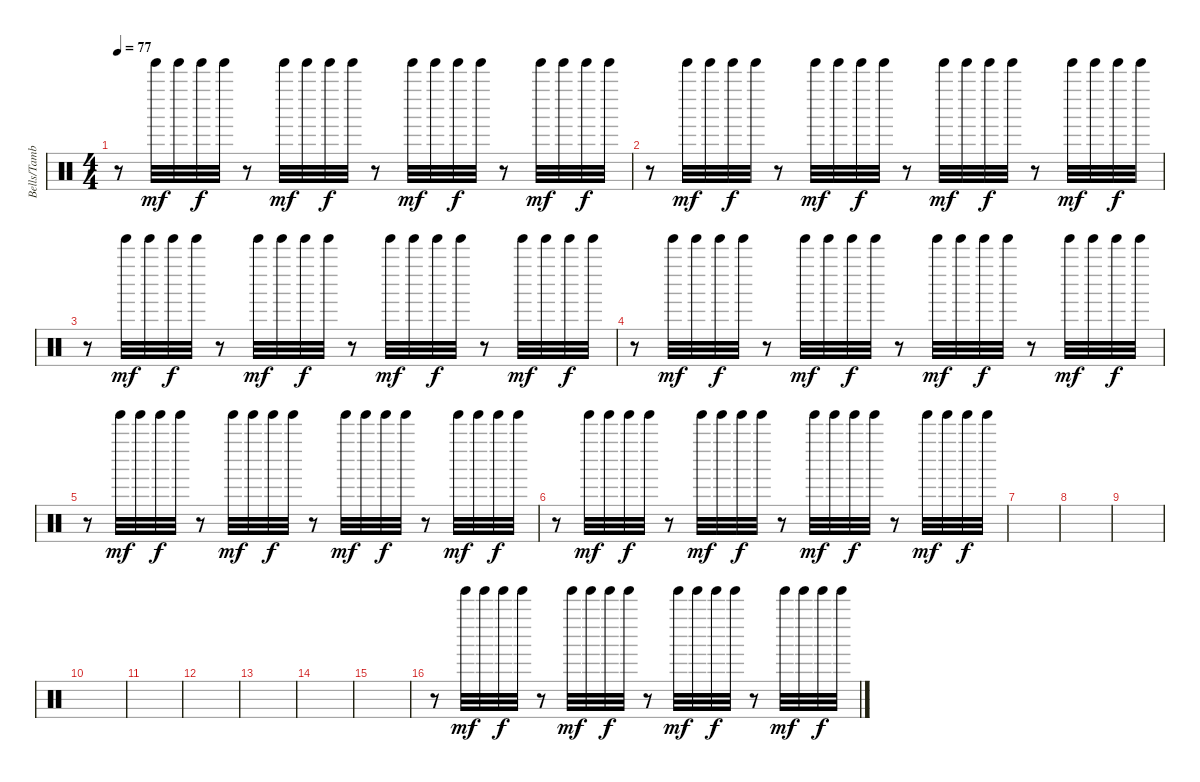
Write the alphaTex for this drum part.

\track ("Bells/Tambo" "Bells/Tamb") {instrument percussion}
\staff {score}
\articulation defaults
\ts (4 4)
\tempo 77
\clef neutral
\ks c
r.8{dy f} "Tinkle Bell (hit)".32{dy mf} "Tinkle Bell (hit)".32 "Tinkle Bell (hit)".32{dy f} "Tinkle Bell (hit)".32 r.8 "Tinkle Bell (hit)".32{dy mf} "Tinkle Bell (hit)".32 "Tinkle Bell (hit)".32{dy f} "Tinkle Bell (hit)".32 r.8 "Tinkle Bell (hit)".32{dy mf} "Tinkle Bell (hit)".32 "Tinkle Bell (hit)".32{dy f} "Tinkle Bell (hit)".32 r.8 "Tinkle Bell (hit)".32{dy mf} "Tinkle Bell (hit)".32 "Tinkle Bell (hit)".32{dy f} "Tinkle Bell (hit)".32 |
r.8 "Tinkle Bell (hit)".32{dy mf} "Tinkle Bell (hit)".32 "Tinkle Bell (hit)".32{dy f} "Tinkle Bell (hit)".32 r.8 "Tinkle Bell (hit)".32{dy mf} "Tinkle Bell (hit)".32 "Tinkle Bell (hit)".32{dy f} "Tinkle Bell (hit)".32 r.8 "Tinkle Bell (hit)".32{dy mf} "Tinkle Bell (hit)".32 "Tinkle Bell (hit)".32{dy f} "Tinkle Bell (hit)".32 r.8 "Tinkle Bell (hit)".32{dy mf} "Tinkle Bell (hit)".32 "Tinkle Bell (hit)".32{dy f} "Tinkle Bell (hit)".32 |
r.8 "Tinkle Bell (hit)".32{dy mf} "Tinkle Bell (hit)".32 "Tinkle Bell (hit)".32{dy f} "Tinkle Bell (hit)".32 r.8 "Tinkle Bell (hit)".32{dy mf} "Tinkle Bell (hit)".32 "Tinkle Bell (hit)".32{dy f} "Tinkle Bell (hit)".32 r.8 "Tinkle Bell (hit)".32{dy mf} "Tinkle Bell (hit)".32 "Tinkle Bell (hit)".32{dy f} "Tinkle Bell (hit)".32 r.8 "Tinkle Bell (hit)".32{dy mf} "Tinkle Bell (hit)".32 "Tinkle Bell (hit)".32{dy f} "Tinkle Bell (hit)".32 |
r.8 "Tinkle Bell (hit)".32{dy mf} "Tinkle Bell (hit)".32 "Tinkle Bell (hit)".32{dy f} "Tinkle Bell (hit)".32 r.8 "Tinkle Bell (hit)".32{dy mf} "Tinkle Bell (hit)".32 "Tinkle Bell (hit)".32{dy f} "Tinkle Bell (hit)".32 r.8 "Tinkle Bell (hit)".32{dy mf} "Tinkle Bell (hit)".32 "Tinkle Bell (hit)".32{dy f} "Tinkle Bell (hit)".32 r.8 "Tinkle Bell (hit)".32{dy mf} "Tinkle Bell (hit)".32 "Tinkle Bell (hit)".32{dy f} "Tinkle Bell (hit)".32 |
r.8 "Tinkle Bell (hit)".32{dy mf} "Tinkle Bell (hit)".32 "Tinkle Bell (hit)".32{dy f} "Tinkle Bell (hit)".32 r.8 "Tinkle Bell (hit)".32{dy mf} "Tinkle Bell (hit)".32 "Tinkle Bell (hit)".32{dy f} "Tinkle Bell (hit)".32 r.8 "Tinkle Bell (hit)".32{dy mf} "Tinkle Bell (hit)".32 "Tinkle Bell (hit)".32{dy f} "Tinkle Bell (hit)".32 r.8 "Tinkle Bell (hit)".32{dy mf} "Tinkle Bell (hit)".32 "Tinkle Bell (hit)".32{dy f} "Tinkle Bell (hit)".32 |
r.8 "Tinkle Bell (hit)".32{dy mf} "Tinkle Bell (hit)".32 "Tinkle Bell (hit)".32{dy f} "Tinkle Bell (hit)".32 r.8 "Tinkle Bell (hit)".32{dy mf} "Tinkle Bell (hit)".32 "Tinkle Bell (hit)".32{dy f} "Tinkle Bell (hit)".32 r.8 "Tinkle Bell (hit)".32{dy mf} "Tinkle Bell (hit)".32 "Tinkle Bell (hit)".32{dy f} "Tinkle Bell (hit)".32 r.8 "Tinkle Bell (hit)".32{dy mf} "Tinkle Bell (hit)".32 "Tinkle Bell (hit)".32{dy f} "Tinkle Bell (hit)".32 |
|
|
|
|
|
|
|
|
|
r.8 "Tinkle Bell (hit)".32{dy mf} "Tinkle Bell (hit)".32 "Tinkle Bell (hit)".32{dy f} "Tinkle Bell (hit)".32 r.8 "Tinkle Bell (hit)".32{dy mf} "Tinkle Bell (hit)".32 "Tinkle Bell (hit)".32{dy f} "Tinkle Bell (hit)".32 r.8 "Tinkle Bell (hit)".32{dy mf} "Tinkle Bell (hit)".32 "Tinkle Bell (hit)".32{dy f} "Tinkle Bell (hit)".32 r.8 "Tinkle Bell (hit)".32{dy mf} "Tinkle Bell (hit)".32 "Tinkle Bell (hit)".32{dy f} "Tinkle Bell (hit)".32
